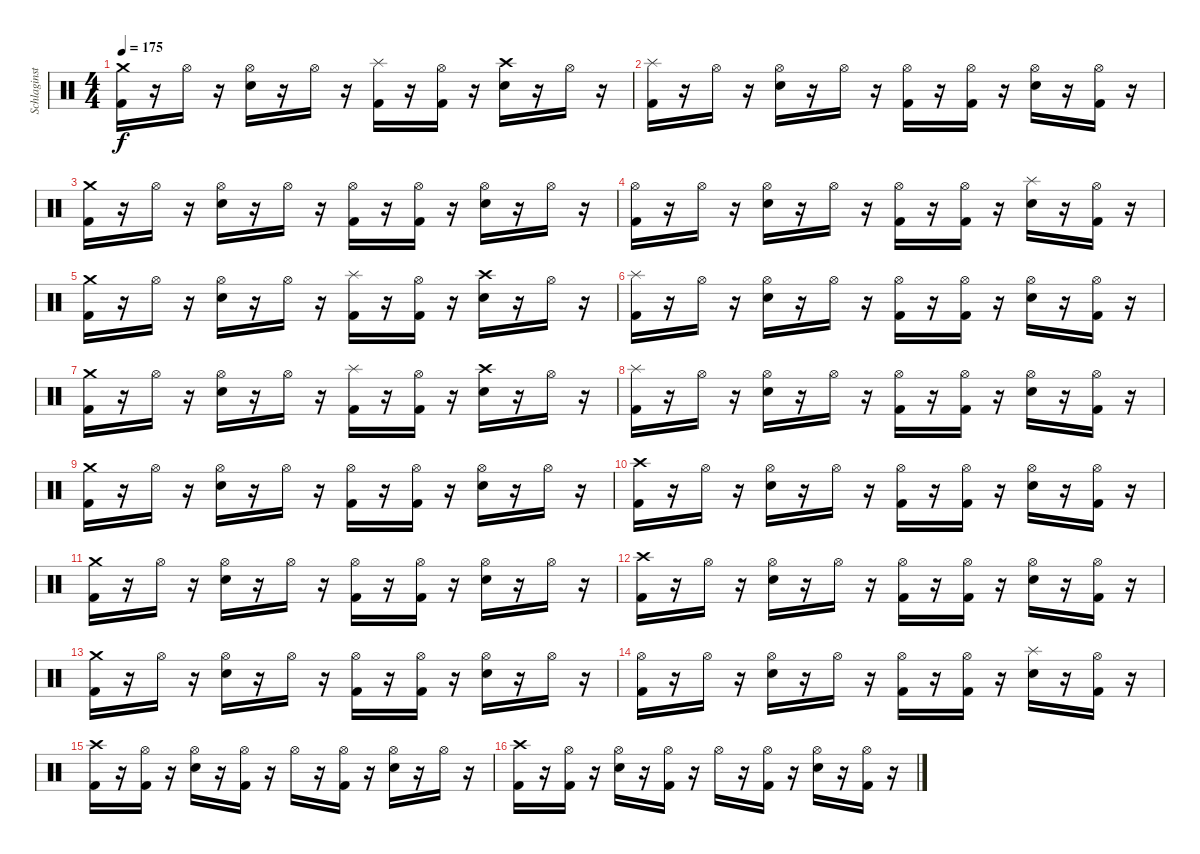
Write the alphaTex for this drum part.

\track ("Schlaginstrumente - Auswahl" "Schlaginst") {instrument percussion}
\staff {score}
\articulation defaults
\ts (4 4)
\tempo 175
\clef neutral
\ks c
("Crash medium (hit)" "Kick (hit) 2").16{dy f} r.16 "Hi-Hat (open)".16 r.16 ("Hi-Hat (open)" "Electric Snare (hit)").16 r.16 "Hi-Hat (open)".16 r.16 ("Splash (hit)" "Kick (hit) 2").16 r.16 ("Hi-Hat (open)" "Kick (hit) 2").16 r.16 ("Crash high (hit)" "Electric Snare (hit)").16 r.16 "Hi-Hat (open)".16 r.16 |
("Splash (hit)" "Kick (hit) 2").16 r.16 "Hi-Hat (open)".16 r.16 ("Hi-Hat (open)" "Electric Snare (hit)").16 r.16 "Hi-Hat (open)".16 r.16 ("Hi-Hat (open)" "Kick (hit) 2").16 r.16 ("Hi-Hat (open)" "Kick (hit) 2").16 r.16 ("Hi-Hat (open)" "Electric Snare (hit)").16 r.16 ("Hi-Hat (open)" "Kick (hit) 2").16 r.16 |
("Crash medium (hit)" "Kick (hit) 2").16 r.16 "Hi-Hat (open)".16 r.16 ("Hi-Hat (open)" "Electric Snare (hit)").16 r.16 "Hi-Hat (open)".16 r.16 ("Hi-Hat (open)" "Kick (hit) 2").16 r.16 ("Hi-Hat (open)" "Kick (hit) 2").16 r.16 ("Hi-Hat (open)" "Electric Snare (hit)").16 r.16 "Hi-Hat (open)".16 r.16 |
("Hi-Hat (open)" "Kick (hit) 2").16 r.16 "Hi-Hat (open)".16 r.16 ("Hi-Hat (open)" "Electric Snare (hit)").16 r.16 "Hi-Hat (open)".16 r.16 ("Hi-Hat (open)" "Kick (hit) 2").16 r.16 ("Hi-Hat (open)" "Kick (hit) 2").16 r.16 ("Splash (hit)" "Electric Snare (hit)").16 r.16 ("Hi-Hat (open)" "Kick (hit) 2").16 r.16 |
("Crash medium (hit)" "Kick (hit) 2").16 r.16 "Hi-Hat (open)".16 r.16 ("Hi-Hat (open)" "Electric Snare (hit)").16 r.16 "Hi-Hat (open)".16 r.16 ("Splash (hit)" "Kick (hit) 2").16 r.16 ("Hi-Hat (open)" "Kick (hit) 2").16 r.16 ("Crash high (hit)" "Electric Snare (hit)").16 r.16 "Hi-Hat (open)".16 r.16 |
("Splash (hit)" "Kick (hit) 2").16 r.16 "Hi-Hat (open)".16 r.16 ("Hi-Hat (open)" "Electric Snare (hit)").16 r.16 "Hi-Hat (open)".16 r.16 ("Hi-Hat (open)" "Kick (hit) 2").16 r.16 ("Hi-Hat (open)" "Kick (hit) 2").16 r.16 ("Hi-Hat (open)" "Electric Snare (hit)").16 r.16 ("Hi-Hat (open)" "Kick (hit) 2").16 r.16 |
("Crash medium (hit)" "Kick (hit) 2").16 r.16 "Hi-Hat (open)".16 r.16 ("Hi-Hat (open)" "Electric Snare (hit)").16 r.16 "Hi-Hat (open)".16 r.16 ("Splash (hit)" "Kick (hit) 2").16 r.16 ("Hi-Hat (open)" "Kick (hit) 2").16 r.16 ("Crash high (hit)" "Electric Snare (hit)").16 r.16 "Hi-Hat (open)".16 r.16 |
("Splash (hit)" "Kick (hit) 2").16 r.16 "Hi-Hat (open)".16 r.16 ("Hi-Hat (open)" "Electric Snare (hit)").16 r.16 "Hi-Hat (open)".16 r.16 ("Hi-Hat (open)" "Kick (hit) 2").16 r.16 ("Hi-Hat (open)" "Kick (hit) 2").16 r.16 ("Hi-Hat (open)" "Electric Snare (hit)").16 r.16 ("Hi-Hat (open)" "Kick (hit) 2").16 r.16 |
("Crash medium (hit)" "Kick (hit) 2").16 r.16 "Hi-Hat (open)".16 r.16 ("Hi-Hat (open)" "Electric Snare (hit)").16 r.16 "Hi-Hat (open)".16 r.16 ("Hi-Hat (open)" "Kick (hit) 2").16 r.16 ("Hi-Hat (open)" "Kick (hit) 2").16 r.16 ("Hi-Hat (open)" "Electric Snare (hit)").16 r.16 "Hi-Hat (open)".16 r.16 |
("Crash high (hit)" "Kick (hit) 2").16 r.16 "Hi-Hat (open)".16 r.16 ("Hi-Hat (open)" "Electric Snare (hit)").16 r.16 "Hi-Hat (open)".16 r.16 ("Hi-Hat (open)" "Kick (hit) 2").16 r.16 ("Hi-Hat (open)" "Kick (hit) 2").16 r.16 ("Hi-Hat (open)" "Electric Snare (hit)").16 r.16 ("Hi-Hat (open)" "Kick (hit) 2").16 r.16 |
("Crash medium (hit)" "Kick (hit) 2").16 r.16 "Hi-Hat (open)".16 r.16 ("Hi-Hat (open)" "Electric Snare (hit)").16 r.16 "Hi-Hat (open)".16 r.16 ("Hi-Hat (open)" "Kick (hit) 2").16 r.16 ("Hi-Hat (open)" "Kick (hit) 2").16 r.16 ("Hi-Hat (open)" "Electric Snare (hit)").16 r.16 "Hi-Hat (open)".16 r.16 |
("Crash high (hit)" "Kick (hit) 2").16 r.16 "Hi-Hat (open)".16 r.16 ("Hi-Hat (open)" "Electric Snare (hit)").16 r.16 "Hi-Hat (open)".16 r.16 ("Hi-Hat (open)" "Kick (hit) 2").16 r.16 ("Hi-Hat (open)" "Kick (hit) 2").16 r.16 ("Hi-Hat (open)" "Electric Snare (hit)").16 r.16 ("Hi-Hat (open)" "Kick (hit) 2").16 r.16 |
("Crash medium (hit)" "Kick (hit) 2").16 r.16 "Hi-Hat (open)".16 r.16 ("Hi-Hat (open)" "Electric Snare (hit)").16 r.16 "Hi-Hat (open)".16 r.16 ("Hi-Hat (open)" "Kick (hit) 2").16 r.16 ("Hi-Hat (open)" "Kick (hit) 2").16 r.16 ("Hi-Hat (open)" "Electric Snare (hit)").16 r.16 "Hi-Hat (open)".16 r.16 |
("Hi-Hat (open)" "Kick (hit) 2").16 r.16 "Hi-Hat (open)".16 r.16 ("Hi-Hat (open)" "Electric Snare (hit)").16 r.16 "Hi-Hat (open)".16 r.16 ("Hi-Hat (open)" "Kick (hit) 2").16 r.16 ("Hi-Hat (open)" "Kick (hit) 2").16 r.16 ("Splash (hit)" "Electric Snare (hit)").16 r.16 ("Hi-Hat (open)" "Kick (hit) 2").16 r.16 |
("Crash high (hit)" "Kick (hit) 2").16 r.16 ("Hi-Hat (open)" "Kick (hit) 2").16 r.16 ("Hi-Hat (open)" "Electric Snare (hit)").16 r.16 ("Hi-Hat (open)" "Kick (hit) 2").16 r.16 "Hi-Hat (open)".16 r.16 ("Hi-Hat (open)" "Kick (hit) 2").16 r.16 ("Hi-Hat (open)" "Electric Snare (hit)").16 r.16 "Hi-Hat (open)".16 r.16 |
("Crash high (hit)" "Kick (hit) 2").16 r.16 ("Hi-Hat (open)" "Kick (hit) 2").16 r.16 ("Hi-Hat (open)" "Electric Snare (hit)").16 r.16 ("Hi-Hat (open)" "Kick (hit) 2").16 r.16 "Hi-Hat (open)".16 r.16 ("Hi-Hat (open)" "Kick (hit) 2").16 r.16 ("Hi-Hat (open)" "Electric Snare (hit)").16 r.16 ("Hi-Hat (open)" "Kick (hit) 2").16 r.16
